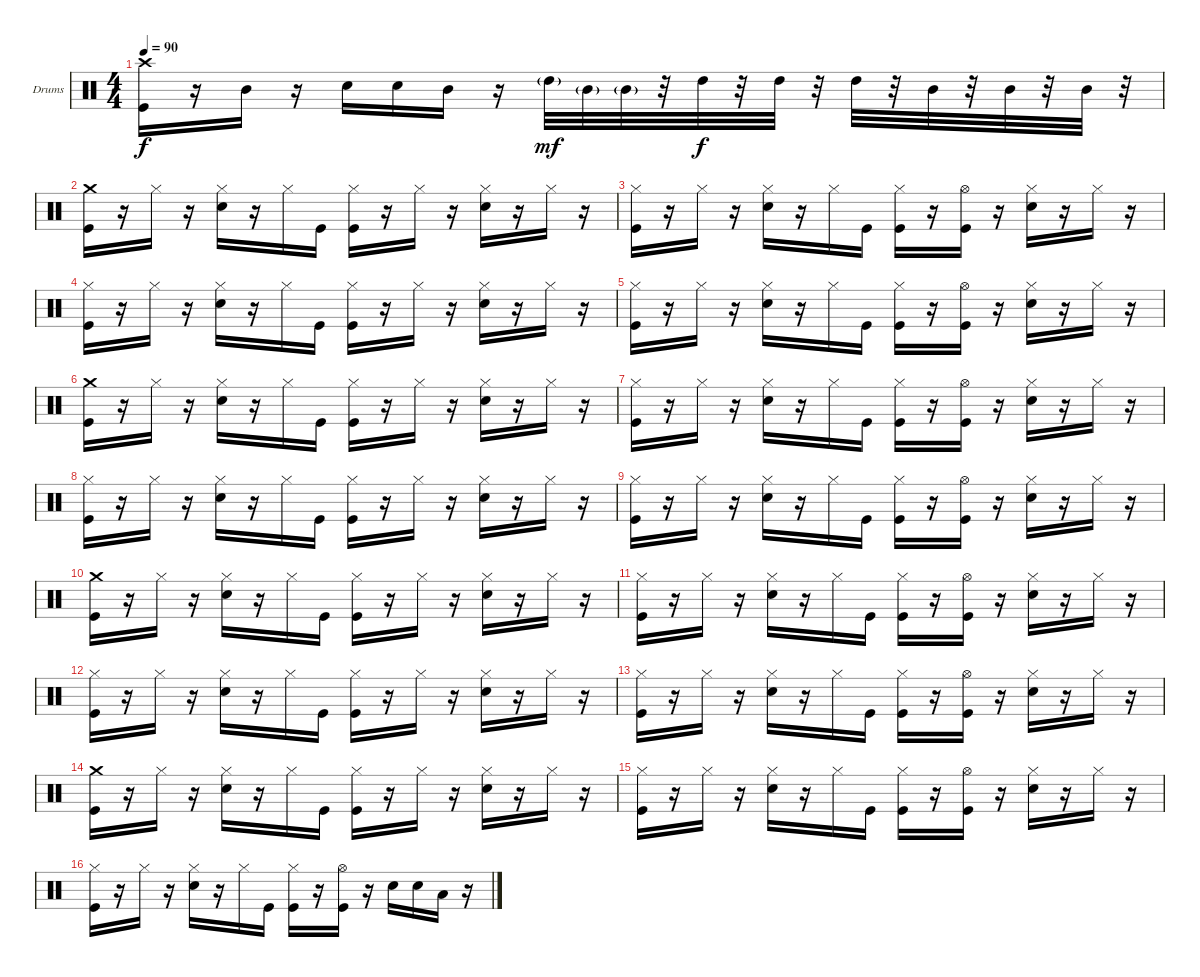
\defaultSystemsLayout 4
\bracketExtendMode groupsimilarinstruments
\firstSystemTrackNameOrientation horizontal
\otherSystemsTrackNameOrientation horizontal
\track ("Percucion" "Drums") {instrument percussion}
\staff {score}
\articulation defaults
\ts (4 4)
\tempo 90
\clef neutral
\scale
0.333333
\ks c
("Crash high (hit)" "Kick (hit)").16{dy f} r.16 "Mid Tom (hit)".16 r.16 "Snare (hit) 2".16 "Snare (hit) 2".16 "Mid Tom (hit)".16 r.16 "High Tom (hit)"{g}.32{dy mf} "Mid Tom (hit)"{g}.32 "Mid Tom (hit)"{g}.32 r.32 "High Tom (hit)".32{dy f} r.32 "High Tom (hit)".32 r.32 "High Tom (hit)".32 r.32 "Mid Tom (hit)".32 r.32 "Mid Tom (hit)".32 r.32 "Mid Tom (hit)".32 r.32 |
\scale
0.333333 ("Crash medium (hit)" "Kick (hit)").16 r.16 "Hi-Hat (closed)".16 r.16 ("Hi-Hat (closed)" "Snare (hit) 2").16 r.16 "Hi-Hat (closed)".16 "Kick (hit)".16 ("Hi-Hat (closed)" "Kick (hit)").16 r.16 "Hi-Hat (closed)".16 r.16 ("Hi-Hat (closed)" "Snare (hit) 2").16 r.16 "Hi-Hat (closed)".16 r.16 |
\scale
0.333333 ("Hi-Hat (closed)" "Kick (hit)").16 r.16 "Hi-Hat (closed)".16 r.16 ("Hi-Hat (closed)" "Snare (hit) 2").16 r.16 "Hi-Hat (closed)".16 "Kick (hit)".16 ("Hi-Hat (closed)" "Kick (hit)").16 r.16 ("Hi-Hat (open)" "Kick (hit)").16 r.16 ("Hi-Hat (closed)" "Snare (hit) 2").16 r.16 "Hi-Hat (closed)".16 r.16 |
\scale
0.333333 ("Hi-Hat (closed)" "Kick (hit)").16 r.16 "Hi-Hat (closed)".16 r.16 ("Hi-Hat (closed)" "Snare (hit) 2").16 r.16 "Hi-Hat (closed)".16 "Kick (hit)".16 ("Hi-Hat (closed)" "Kick (hit)").16 r.16 "Hi-Hat (closed)".16 r.16 ("Hi-Hat (closed)" "Snare (hit) 2").16 r.16 "Hi-Hat (closed)".16 r.16 |
\scale
0.333333 ("Hi-Hat (closed)" "Kick (hit)").16 r.16 "Hi-Hat (closed)".16 r.16 ("Hi-Hat (closed)" "Snare (hit) 2").16 r.16 "Hi-Hat (closed)".16 "Kick (hit)".16 ("Hi-Hat (closed)" "Kick (hit)").16 r.16 ("Hi-Hat (open)" "Kick (hit)").16 r.16 ("Hi-Hat (closed)" "Snare (hit) 2").16 r.16 "Hi-Hat (closed)".16 r.16 |
\scale
0.333333 ("Crash medium (hit)" "Kick (hit)").16 r.16 "Hi-Hat (closed)".16 r.16 ("Hi-Hat (closed)" "Snare (hit) 2").16 r.16 "Hi-Hat (closed)".16 "Kick (hit)".16 ("Hi-Hat (closed)" "Kick (hit)").16 r.16 "Hi-Hat (closed)".16 r.16 ("Hi-Hat (closed)" "Snare (hit) 2").16 r.16 "Hi-Hat (closed)".16 r.16 |
\scale
0.333333 ("Hi-Hat (closed)" "Kick (hit)").16 r.16 "Hi-Hat (closed)".16 r.16 ("Hi-Hat (closed)" "Snare (hit) 2").16 r.16 "Hi-Hat (closed)".16 "Kick (hit)".16 ("Hi-Hat (closed)" "Kick (hit)").16 r.16 ("Hi-Hat (open)" "Kick (hit)").16 r.16 ("Hi-Hat (closed)" "Snare (hit) 2").16 r.16 "Hi-Hat (closed)".16 r.16 |
\scale
0.333333 ("Hi-Hat (closed)" "Kick (hit)").16 r.16 "Hi-Hat (closed)".16 r.16 ("Hi-Hat (closed)" "Snare (hit) 2").16 r.16 "Hi-Hat (closed)".16 "Kick (hit)".16 ("Hi-Hat (closed)" "Kick (hit)").16 r.16 "Hi-Hat (closed)".16 r.16 ("Hi-Hat (closed)" "Snare (hit) 2").16 r.16 "Hi-Hat (closed)".16 r.16 |
\scale
0.333333 ("Hi-Hat (closed)" "Kick (hit)").16 r.16 "Hi-Hat (closed)".16 r.16 ("Hi-Hat (closed)" "Snare (hit) 2").16 r.16 "Hi-Hat (closed)".16 "Kick (hit)".16 ("Hi-Hat (closed)" "Kick (hit)").16 r.16 ("Hi-Hat (open)" "Kick (hit)").16 r.16 ("Hi-Hat (closed)" "Snare (hit) 2").16 r.16 "Hi-Hat (closed)".16 r.16 |
\scale
0.333333 ("Crash medium (hit)" "Kick (hit)").16 r.16 "Hi-Hat (closed)".16 r.16 ("Hi-Hat (closed)" "Snare (hit) 2").16 r.16 "Hi-Hat (closed)".16 "Kick (hit)".16 ("Hi-Hat (closed)" "Kick (hit)").16 r.16 "Hi-Hat (closed)".16 r.16 ("Hi-Hat (closed)" "Snare (hit) 2").16 r.16 "Hi-Hat (closed)".16 r.16 |
\scale
0.333333 ("Hi-Hat (closed)" "Kick (hit)").16 r.16 "Hi-Hat (closed)".16 r.16 ("Hi-Hat (closed)" "Snare (hit) 2").16 r.16 "Hi-Hat (closed)".16 "Kick (hit)".16 ("Hi-Hat (closed)" "Kick (hit)").16 r.16 ("Hi-Hat (open)" "Kick (hit)").16 r.16 ("Hi-Hat (closed)" "Snare (hit) 2").16 r.16 "Hi-Hat (closed)".16 r.16 |
\scale
0.333333 ("Hi-Hat (closed)" "Kick (hit)").16 r.16 "Hi-Hat (closed)".16 r.16 ("Hi-Hat (closed)" "Snare (hit) 2").16 r.16 "Hi-Hat (closed)".16 "Kick (hit)".16 ("Hi-Hat (closed)" "Kick (hit)").16 r.16 "Hi-Hat (closed)".16 r.16 ("Hi-Hat (closed)" "Snare (hit) 2").16 r.16 "Hi-Hat (closed)".16 r.16 |
\scale
0.333333 ("Hi-Hat (closed)" "Kick (hit)").16 r.16 "Hi-Hat (closed)".16 r.16 ("Hi-Hat (closed)" "Snare (hit) 2").16 r.16 "Hi-Hat (closed)".16 "Kick (hit)".16 ("Hi-Hat (closed)" "Kick (hit)").16 r.16 ("Hi-Hat (open)" "Kick (hit)").16 r.16 ("Hi-Hat (closed)" "Snare (hit) 2").16 r.16 "Hi-Hat (closed)".16 r.16 |
\scale
0.333333 ("Crash medium (hit)" "Kick (hit)").16 r.16 "Hi-Hat (closed)".16 r.16 ("Hi-Hat (closed)" "Snare (hit) 2").16 r.16 "Hi-Hat (closed)".16 "Kick (hit)".16 ("Hi-Hat (closed)" "Kick (hit)").16 r.16 "Hi-Hat (closed)".16 r.16 ("Hi-Hat (closed)" "Snare (hit) 2").16 r.16 "Hi-Hat (closed)".16 r.16 |
\scale
0.333333 ("Hi-Hat (closed)" "Kick (hit)").16 r.16 "Hi-Hat (closed)".16 r.16 ("Hi-Hat (closed)" "Snare (hit) 2").16 r.16 "Hi-Hat (closed)".16 "Kick (hit)".16 ("Hi-Hat (closed)" "Kick (hit)").16 r.16 ("Hi-Hat (open)" "Kick (hit)").16 r.16 ("Hi-Hat (closed)" "Snare (hit) 2").16 r.16 "Hi-Hat (closed)".16 r.16 |
\scale
0.333333 ("Hi-Hat (closed)" "Kick (hit)").16 r.16 "Hi-Hat (closed)".16 r.16 ("Hi-Hat (closed)" "Snare (hit) 2").16 r.16 "Hi-Hat (closed)".16 "Kick (hit)".16 ("Hi-Hat (closed)" "Kick (hit)").16 r.16 ("Hi-Hat (open)" "Kick (hit)").16 r.16 "Snare (hit) 2".16 "Snare (hit) 2".16 "Low Tom (hit)".16 r.16
